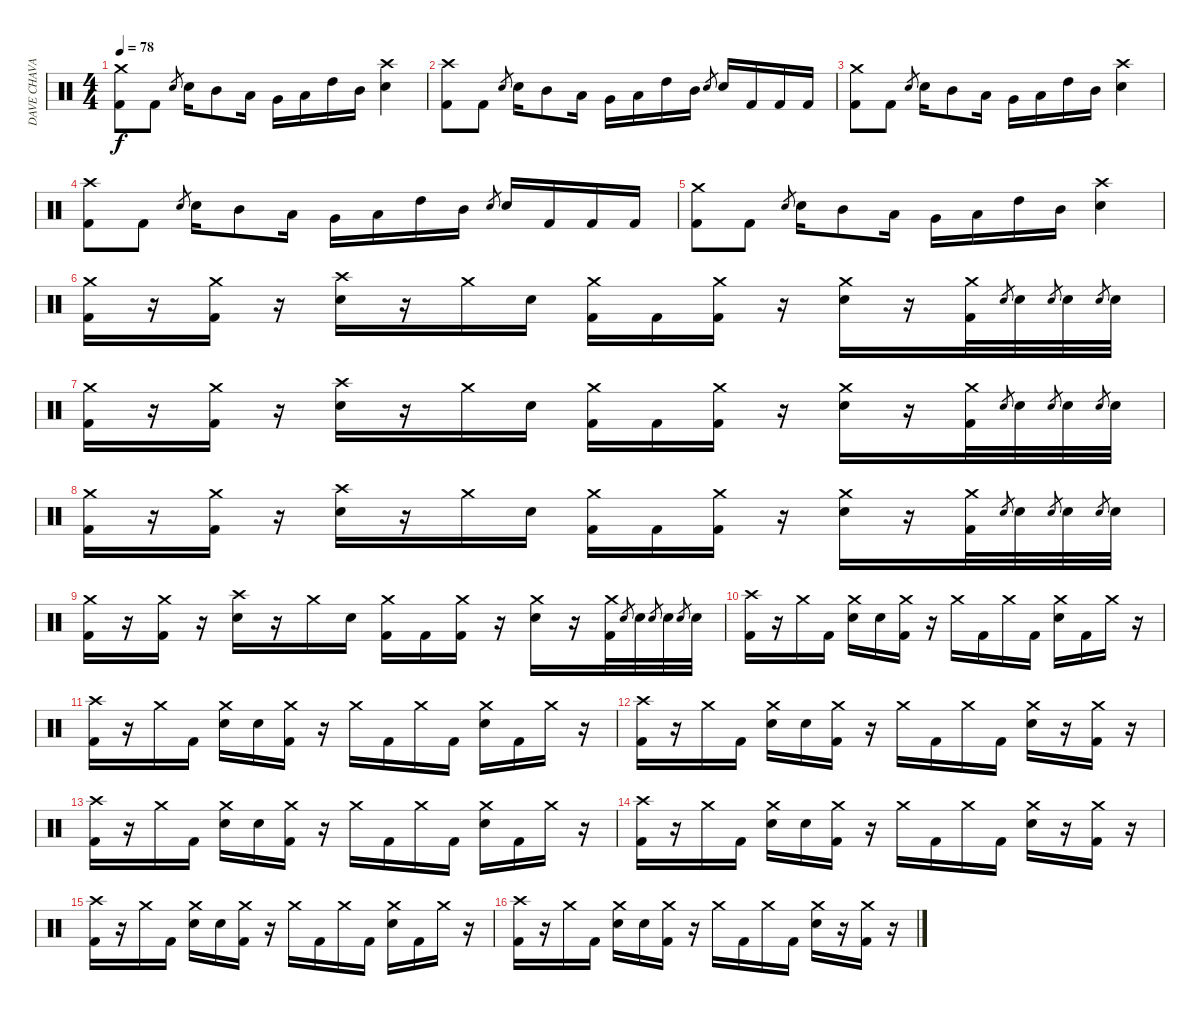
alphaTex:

\track ("DAVE CHAVARRI" "DAVE CHAVA") {instrument percussion}
\staff {score}
\articulation defaults
\ts (4 4)
\tempo 78
\clef neutral
\ks c
("Crash medium (hit)" "Kick (hit) 2").8{dy f} "Kick (hit) 2".8 "Electric Snare (hit)".8{gr} "Electric Snare (hit)".16 "Mid Tom (hit)".8 "Low Tom (hit)".16 "Very Low Tom (hit)".16 "Low Floor Tom (hit)".16 "High Tom (hit)".16 "Mid Tom (hit)".16 ("Crash high (hit)" "Electric Snare (hit)").4 |
("Crash high (hit)" "Kick (hit) 2").8 "Kick (hit) 2".8 "Electric Snare (hit)".8{gr} "Electric Snare (hit)".16 "Mid Tom (hit)".8 "Low Tom (hit)".16 "Very Low Tom (hit)".16 "Low Floor Tom (hit)".16 "High Tom (hit)".16 "Mid Tom (hit)".16 "Electric Snare (hit)".8{gr} "Electric Snare (hit)".16 "Kick (hit) 2".16 "Kick (hit) 2".16 "Kick (hit) 2".16 |
("Crash medium (hit)" "Kick (hit) 2").8 "Kick (hit) 2".8 "Electric Snare (hit)".8{gr} "Electric Snare (hit)".16 "Mid Tom (hit)".8 "Low Tom (hit)".16 "Very Low Tom (hit)".16 "Low Floor Tom (hit)".16 "High Tom (hit)".16 "Mid Tom (hit)".16 ("Crash high (hit)" "Electric Snare (hit)").4 |
("Crash high (hit)" "Kick (hit) 2").8 "Kick (hit) 2".8 "Electric Snare (hit)".8{gr} "Electric Snare (hit)".16 "Mid Tom (hit)".8 "Low Tom (hit)".16 "Very Low Tom (hit)".16 "Low Floor Tom (hit)".16 "High Tom (hit)".16 "Mid Tom (hit)".16 "Electric Snare (hit)".8{gr} "Electric Snare (hit)".16 "Kick (hit) 2".16 "Kick (hit) 2".16 "Kick (hit) 2".16 |
("Crash medium (hit)" "Kick (hit) 2").8 "Kick (hit) 2".8 "Electric Snare (hit)".8{gr} "Electric Snare (hit)".16 "Mid Tom (hit)".8 "Low Tom (hit)".16 "Very Low Tom (hit)".16 "Low Floor Tom (hit)".16 "High Tom (hit)".16 "Mid Tom (hit)".16 ("Crash high (hit)" "Electric Snare (hit)").4 |
("Crash medium (hit)" "Kick (hit) 2").16 r.16 ("Crash medium (hit)" "Kick (hit) 2").16 r.16 ("Crash high (hit)" "Electric Snare (hit)").16 r.16 "Crash medium (hit)".16 "Electric Snare (hit)".16 ("Crash medium (hit)" "Kick (hit) 2").16 "Kick (hit) 2".16 ("Crash medium (hit)" "Kick (hit) 2").16 r.16 ("Crash medium (hit)" "Electric Snare (hit)").16 r.16 ("Crash medium (hit)" "Kick (hit) 2").32 "Electric Snare (hit)".8{gr} "Electric Snare (hit)".32 "Electric Snare (hit)".8{gr} "Electric Snare (hit)".32 "Electric Snare (hit)".8{gr} "Electric Snare (hit)".32 |
("Crash medium (hit)" "Kick (hit) 2").16 r.16 ("Crash medium (hit)" "Kick (hit) 2").16 r.16 ("Crash high (hit)" "Electric Snare (hit)").16 r.16 "Crash medium (hit)".16 "Electric Snare (hit)".16 ("Crash medium (hit)" "Kick (hit) 2").16 "Kick (hit) 2".16 ("Crash medium (hit)" "Kick (hit) 2").16 r.16 ("Crash medium (hit)" "Electric Snare (hit)").16 r.16 ("Crash medium (hit)" "Kick (hit) 2").32 "Electric Snare (hit)".8{gr} "Electric Snare (hit)".32 "Electric Snare (hit)".8{gr} "Electric Snare (hit)".32 "Electric Snare (hit)".8{gr} "Electric Snare (hit)".32 |
("Crash medium (hit)" "Kick (hit) 2").16 r.16 ("Crash medium (hit)" "Kick (hit) 2").16 r.16 ("Crash high (hit)" "Electric Snare (hit)").16 r.16 "Crash medium (hit)".16 "Electric Snare (hit)".16 ("Crash medium (hit)" "Kick (hit) 2").16 "Kick (hit) 2".16 ("Crash medium (hit)" "Kick (hit) 2").16 r.16 ("Crash medium (hit)" "Electric Snare (hit)").16 r.16 ("Crash medium (hit)" "Kick (hit) 2").32 "Electric Snare (hit)".8{gr} "Electric Snare (hit)".32 "Electric Snare (hit)".8{gr} "Electric Snare (hit)".32 "Electric Snare (hit)".8{gr} "Electric Snare (hit)".32 |
("Crash medium (hit)" "Kick (hit) 2").16 r.16 ("Crash medium (hit)" "Kick (hit) 2").16 r.16 ("Crash high (hit)" "Electric Snare (hit)").16 r.16 "Crash medium (hit)".16 "Electric Snare (hit)".16 ("Crash medium (hit)" "Kick (hit) 2").16 "Kick (hit) 2".16 ("Crash medium (hit)" "Kick (hit) 2").16 r.16 ("Crash medium (hit)" "Electric Snare (hit)").16 r.16 ("Crash medium (hit)" "Kick (hit) 2").32 "Electric Snare (hit)".8{gr} "Electric Snare (hit)".32 "Electric Snare (hit)".8{gr} "Electric Snare (hit)".32 "Electric Snare (hit)".8{gr} "Electric Snare (hit)".32 |
("Crash high (hit)" "Kick (hit) 2").16 r.16 "Crash medium (hit)".16 "Kick (hit) 2".16 ("Crash medium (hit)" "Electric Snare (hit)").16 "Electric Snare (hit)".16 ("Crash medium (hit)" "Kick (hit) 2").16 r.16 "Crash medium (hit)".16 "Kick (hit) 2".16 "Crash medium (hit)".16 "Kick (hit) 2".16 ("Crash medium (hit)" "Electric Snare (hit)").16 "Kick (hit) 2".16 "Crash medium (hit)".16 r.16 |
("Crash high (hit)" "Kick (hit) 2").16 r.16 "Crash medium (hit)".16 "Kick (hit) 2".16 ("Crash medium (hit)" "Electric Snare (hit)").16 "Electric Snare (hit)".16 ("Crash medium (hit)" "Kick (hit) 2").16 r.16 "Crash medium (hit)".16 "Kick (hit) 2".16 "Crash medium (hit)".16 "Kick (hit) 2".16 ("Crash medium (hit)" "Electric Snare (hit)").16 "Kick (hit) 2".16 "Crash medium (hit)".16 r.16 |
("Crash high (hit)" "Kick (hit) 2").16 r.16 "Crash medium (hit)".16 "Kick (hit) 2".16 ("Crash medium (hit)" "Electric Snare (hit)").16 "Electric Snare (hit)".16 ("Crash medium (hit)" "Kick (hit) 2").16 r.16 "Crash medium (hit)".16 "Kick (hit) 2".16 "Crash medium (hit)".16 "Kick (hit) 2".16 ("Crash medium (hit)" "Electric Snare (hit)").16 r.16 ("Crash medium (hit)" "Kick (hit) 2").16 r.16 |
("Crash high (hit)" "Kick (hit) 2").16 r.16 "Crash medium (hit)".16 "Kick (hit) 2".16 ("Crash medium (hit)" "Electric Snare (hit)").16 "Electric Snare (hit)".16 ("Crash medium (hit)" "Kick (hit) 2").16 r.16 "Crash medium (hit)".16 "Kick (hit) 2".16 "Crash medium (hit)".16 "Kick (hit) 2".16 ("Crash medium (hit)" "Electric Snare (hit)").16 "Kick (hit) 2".16 "Crash medium (hit)".16 r.16 |
("Crash high (hit)" "Kick (hit) 2").16 r.16 "Crash medium (hit)".16 "Kick (hit) 2".16 ("Crash medium (hit)" "Electric Snare (hit)").16 "Electric Snare (hit)".16 ("Crash medium (hit)" "Kick (hit) 2").16 r.16 "Crash medium (hit)".16 "Kick (hit) 2".16 "Crash medium (hit)".16 "Kick (hit) 2".16 ("Crash medium (hit)" "Electric Snare (hit)").16 r.16 ("Crash medium (hit)" "Kick (hit) 2").16 r.16 |
("Crash high (hit)" "Kick (hit) 2").16 r.16 "Crash medium (hit)".16 "Kick (hit) 2".16 ("Crash medium (hit)" "Electric Snare (hit)").16 "Electric Snare (hit)".16 ("Crash medium (hit)" "Kick (hit) 2").16 r.16 "Crash medium (hit)".16 "Kick (hit) 2".16 "Crash medium (hit)".16 "Kick (hit) 2".16 ("Crash medium (hit)" "Electric Snare (hit)").16 "Kick (hit) 2".16 "Crash medium (hit)".16 r.16 |
("Crash high (hit)" "Kick (hit) 2").16 r.16 "Crash medium (hit)".16 "Kick (hit) 2".16 ("Crash medium (hit)" "Electric Snare (hit)").16 "Electric Snare (hit)".16 ("Crash medium (hit)" "Kick (hit) 2").16 r.16 "Crash medium (hit)".16 "Kick (hit) 2".16 "Crash medium (hit)".16 "Kick (hit) 2".16 ("Crash medium (hit)" "Electric Snare (hit)").16 r.16 ("Crash medium (hit)" "Kick (hit) 2").16 r.16
